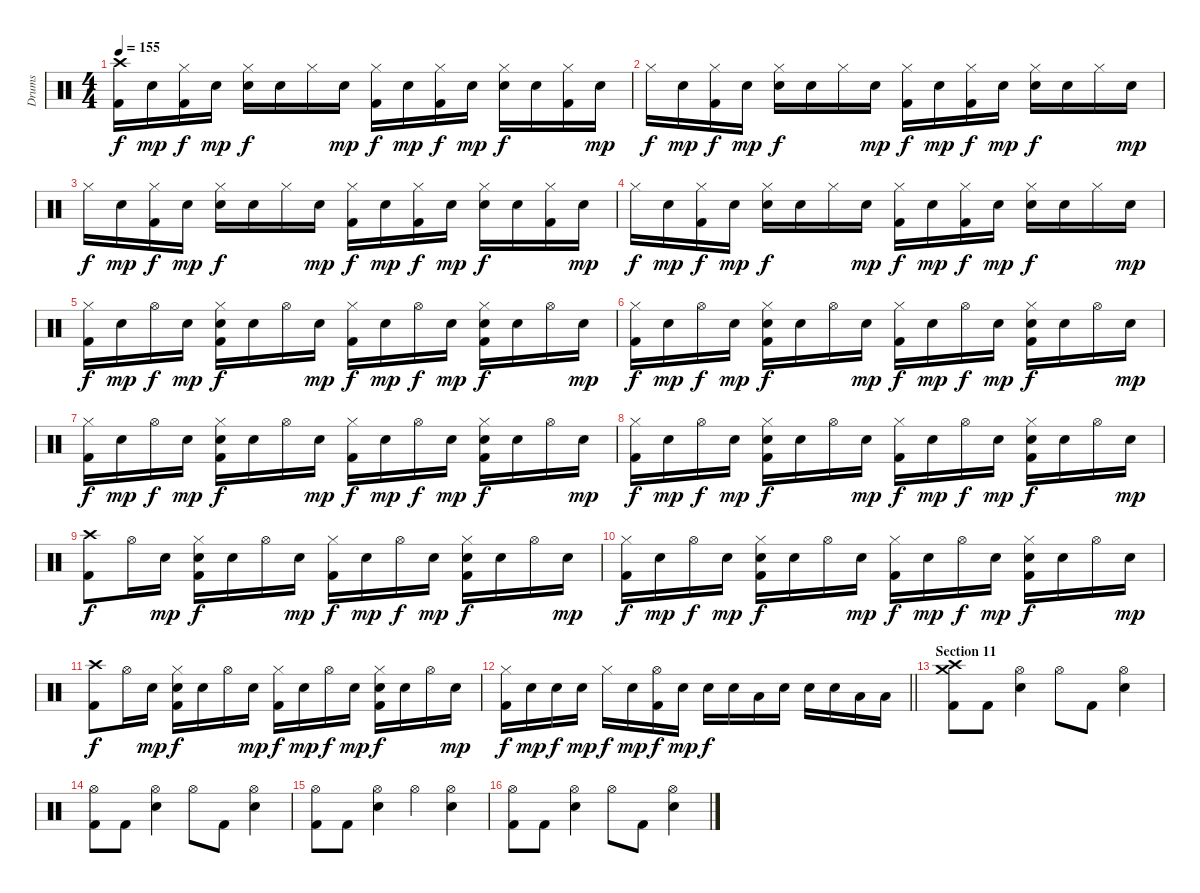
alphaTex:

\track ("Drums" "Drums") {instrument percussion}
\staff {score}
\articulation defaults
\ts (4 4)
\tempo 155
\clef neutral
\ks c
("Crash high (hit)" "Kick (hit) 2").16{dy f} "Electric Snare (hit)".16{dy mp} ("Hi-Hat (closed)" "Kick (hit) 2").16{dy f} "Electric Snare (hit)".16{dy mp} ("Hi-Hat (closed)" "Electric Snare (hit)").16{dy f} "Electric Snare (hit)".16 "Hi-Hat (closed)".16 "Electric Snare (hit)".16{dy mp} ("Hi-Hat (closed)" "Kick (hit) 2").16{dy f} "Electric Snare (hit)".16{dy mp} ("Hi-Hat (closed)" "Kick (hit) 2").16{dy f} "Electric Snare (hit)".16{dy mp} ("Hi-Hat (closed)" "Electric Snare (hit)").16{dy f} "Electric Snare (hit)".16 ("Hi-Hat (closed)" "Kick (hit) 2").16 "Electric Snare (hit)".16{dy mp} |
"Hi-Hat (closed)".16{dy f} "Electric Snare (hit)".16{dy mp} ("Hi-Hat (closed)" "Kick (hit) 2").16{dy f} "Electric Snare (hit)".16{dy mp} ("Hi-Hat (closed)" "Electric Snare (hit)").16{dy f} "Electric Snare (hit)".16 "Hi-Hat (closed)".16 "Electric Snare (hit)".16{dy mp} ("Hi-Hat (closed)" "Kick (hit) 2").16{dy f} "Electric Snare (hit)".16{dy mp} ("Hi-Hat (closed)" "Kick (hit) 2").16{dy f} "Electric Snare (hit)".16{dy mp} ("Hi-Hat (closed)" "Electric Snare (hit)").16{dy f} "Electric Snare (hit)".16 "Hi-Hat (closed)".16 "Electric Snare (hit)".16{dy mp} |
"Hi-Hat (closed)".16{dy f} "Electric Snare (hit)".16{dy mp} ("Hi-Hat (closed)" "Kick (hit) 2").16{dy f} "Electric Snare (hit)".16{dy mp} ("Hi-Hat (closed)" "Electric Snare (hit)").16{dy f} "Electric Snare (hit)".16 "Hi-Hat (closed)".16 "Electric Snare (hit)".16{dy mp} ("Hi-Hat (closed)" "Kick (hit) 2").16{dy f} "Electric Snare (hit)".16{dy mp} ("Hi-Hat (closed)" "Kick (hit) 2").16{dy f} "Electric Snare (hit)".16{dy mp} ("Hi-Hat (closed)" "Electric Snare (hit)").16{dy f} "Electric Snare (hit)".16 ("Hi-Hat (closed)" "Kick (hit) 2").16 "Electric Snare (hit)".16{dy mp} |
"Hi-Hat (closed)".16{dy f} "Electric Snare (hit)".16{dy mp} ("Hi-Hat (closed)" "Kick (hit) 2").16{dy f} "Electric Snare (hit)".16{dy mp} ("Hi-Hat (closed)" "Electric Snare (hit)").16{dy f} "Electric Snare (hit)".16 "Hi-Hat (closed)".16 "Electric Snare (hit)".16{dy mp} ("Hi-Hat (closed)" "Kick (hit) 2").16{dy f} "Electric Snare (hit)".16{dy mp} ("Hi-Hat (closed)" "Kick (hit) 2").16{dy f} "Electric Snare (hit)".16{dy mp} ("Hi-Hat (closed)" "Electric Snare (hit)").16{dy f} "Electric Snare (hit)".16 "Hi-Hat (closed)".16 "Electric Snare (hit)".16{dy mp} |
("Hi-Hat (closed)" "Kick (hit) 2").16{dy f} "Electric Snare (hit)".16{dy mp} "Hi-Hat (open)".16{dy f} "Electric Snare (hit)".16{dy mp} ("Hi-Hat (closed)" "Electric Snare (hit)" "Kick (hit) 2").16{dy f} "Electric Snare (hit)".16 "Hi-Hat (open)".16 "Electric Snare (hit)".16{dy mp} ("Hi-Hat (closed)" "Kick (hit) 2").16{dy f} "Electric Snare (hit)".16{dy mp} "Hi-Hat (open)".16{dy f} "Electric Snare (hit)".16{dy mp} ("Hi-Hat (closed)" "Electric Snare (hit)" "Kick (hit) 2").16{dy f} "Electric Snare (hit)".16 "Hi-Hat (open)".16 "Electric Snare (hit)".16{dy mp} |
("Hi-Hat (closed)" "Kick (hit) 2").16{dy f} "Electric Snare (hit)".16{dy mp} "Hi-Hat (open)".16{dy f} "Electric Snare (hit)".16{dy mp} ("Hi-Hat (closed)" "Electric Snare (hit)" "Kick (hit) 2").16{dy f} "Electric Snare (hit)".16 "Hi-Hat (open)".16 "Electric Snare (hit)".16{dy mp} ("Hi-Hat (closed)" "Kick (hit) 2").16{dy f} "Electric Snare (hit)".16{dy mp} "Hi-Hat (open)".16{dy f} "Electric Snare (hit)".16{dy mp} ("Hi-Hat (closed)" "Electric Snare (hit)" "Kick (hit) 2").16{dy f} "Electric Snare (hit)".16 "Hi-Hat (open)".16 "Electric Snare (hit)".16{dy mp} |
("Hi-Hat (closed)" "Kick (hit) 2").16{dy f} "Electric Snare (hit)".16{dy mp} "Hi-Hat (open)".16{dy f} "Electric Snare (hit)".16{dy mp} ("Hi-Hat (closed)" "Electric Snare (hit)" "Kick (hit) 2").16{dy f} "Electric Snare (hit)".16 "Hi-Hat (open)".16 "Electric Snare (hit)".16{dy mp} ("Hi-Hat (closed)" "Kick (hit) 2").16{dy f} "Electric Snare (hit)".16{dy mp} "Hi-Hat (open)".16{dy f} "Electric Snare (hit)".16{dy mp} ("Hi-Hat (closed)" "Electric Snare (hit)" "Kick (hit) 2").16{dy f} "Electric Snare (hit)".16 "Hi-Hat (open)".16 "Electric Snare (hit)".16{dy mp} |
("Hi-Hat (closed)" "Kick (hit) 2").16{dy f} "Electric Snare (hit)".16{dy mp} "Hi-Hat (open)".16{dy f} "Electric Snare (hit)".16{dy mp} ("Hi-Hat (closed)" "Electric Snare (hit)" "Kick (hit) 2").16{dy f} "Electric Snare (hit)".16 "Hi-Hat (open)".16 "Electric Snare (hit)".16{dy mp} ("Hi-Hat (closed)" "Kick (hit) 2").16{dy f} "Electric Snare (hit)".16{dy mp} "Hi-Hat (open)".16{dy f} "Electric Snare (hit)".16{dy mp} ("Hi-Hat (closed)" "Electric Snare (hit)" "Kick (hit) 2").16{dy f} "Electric Snare (hit)".16 "Hi-Hat (open)".16 "Electric Snare (hit)".16{dy mp} |
("Crash high (hit)" "Kick (hit) 2").8{dy f} "Hi-Hat (open)".16 "Electric Snare (hit)".16{dy mp} ("Hi-Hat (closed)" "Electric Snare (hit)" "Kick (hit) 2").16{dy f} "Electric Snare (hit)".16 "Hi-Hat (open)".16 "Electric Snare (hit)".16{dy mp} ("Hi-Hat (closed)" "Kick (hit) 2").16{dy f} "Electric Snare (hit)".16{dy mp} "Hi-Hat (open)".16{dy f} "Electric Snare (hit)".16{dy mp} ("Hi-Hat (closed)" "Electric Snare (hit)" "Kick (hit) 2").16{dy f} "Electric Snare (hit)".16 "Hi-Hat (open)".16 "Electric Snare (hit)".16{dy mp} |
("Hi-Hat (closed)" "Kick (hit) 2").16{dy f} "Electric Snare (hit)".16{dy mp} "Hi-Hat (open)".16{dy f} "Electric Snare (hit)".16{dy mp} ("Hi-Hat (closed)" "Electric Snare (hit)" "Kick (hit) 2").16{dy f} "Electric Snare (hit)".16 "Hi-Hat (open)".16 "Electric Snare (hit)".16{dy mp} ("Hi-Hat (closed)" "Kick (hit) 2").16{dy f} "Electric Snare (hit)".16{dy mp} "Hi-Hat (open)".16{dy f} "Electric Snare (hit)".16{dy mp} ("Hi-Hat (closed)" "Electric Snare (hit)" "Kick (hit) 2").16{dy f} "Electric Snare (hit)".16 "Hi-Hat (open)".16 "Electric Snare (hit)".16{dy mp} |
("Crash high (hit)" "Kick (hit) 2").8{dy f} "Hi-Hat (open)".16 "Electric Snare (hit)".16{dy mp} ("Hi-Hat (closed)" "Electric Snare (hit)" "Kick (hit) 2").16{dy f} "Electric Snare (hit)".16 "Hi-Hat (open)".16 "Electric Snare (hit)".16{dy mp} ("Hi-Hat (closed)" "Kick (hit) 2").16{dy f} "Electric Snare (hit)".16{dy mp} "Hi-Hat (open)".16{dy f} "Electric Snare (hit)".16{dy mp} ("Hi-Hat (closed)" "Electric Snare (hit)" "Kick (hit) 2").16{dy f} "Electric Snare (hit)".16 "Hi-Hat (open)".16 "Electric Snare (hit)".16{dy mp} |
\barLineRight lightlight
("Hi-Hat (closed)" "Kick (hit) 2").16{dy f} "Electric Snare (hit)".16{dy mp} "Electric Snare (hit)".16{dy f} "Electric Snare (hit)".16{dy mp} "Hi-Hat (closed)".16{dy f} "Electric Snare (hit)".16{dy mp} ("Hi-Hat (open)" "Kick (hit) 2").16{dy f} "Electric Snare (hit)".16{dy mp} "Electric Snare (hit)".16{dy f} "Electric Snare (hit)".16 "Low Tom (hit)".16 "Electric Snare (hit)".16 "Electric Snare (hit)".16 "Electric Snare (hit)".16 "Low Tom (hit)".16 "Low Tom (hit)".16 |
\section ("" "Section 11")
("Crash high (hit)" "Crash medium (hit)" "Kick (hit) 2").8 "Kick (hit) 2".8 ("Hi-Hat (open)" "Electric Snare (hit)").4 "Hi-Hat (open)".8 "Kick (hit) 2".8 ("Hi-Hat (open)" "Electric Snare (hit)").4 |
("Hi-Hat (open)" "Kick (hit) 2").8 "Kick (hit) 2".8 ("Hi-Hat (open)" "Electric Snare (hit)").4 "Hi-Hat (open)".8 "Kick (hit) 2".8 ("Hi-Hat (open)" "Electric Snare (hit)").4 |
("Hi-Hat (open)" "Kick (hit) 2").8 "Kick (hit) 2".8 ("Hi-Hat (open)" "Electric Snare (hit)").4 "Hi-Hat (open)".4 ("Hi-Hat (open)" "Electric Snare (hit)").4 |
("Hi-Hat (open)" "Kick (hit) 2").8 "Kick (hit) 2".8 ("Hi-Hat (open)" "Electric Snare (hit)").4 "Hi-Hat (open)".8 "Kick (hit) 2".8 ("Hi-Hat (open)" "Electric Snare (hit)").4
